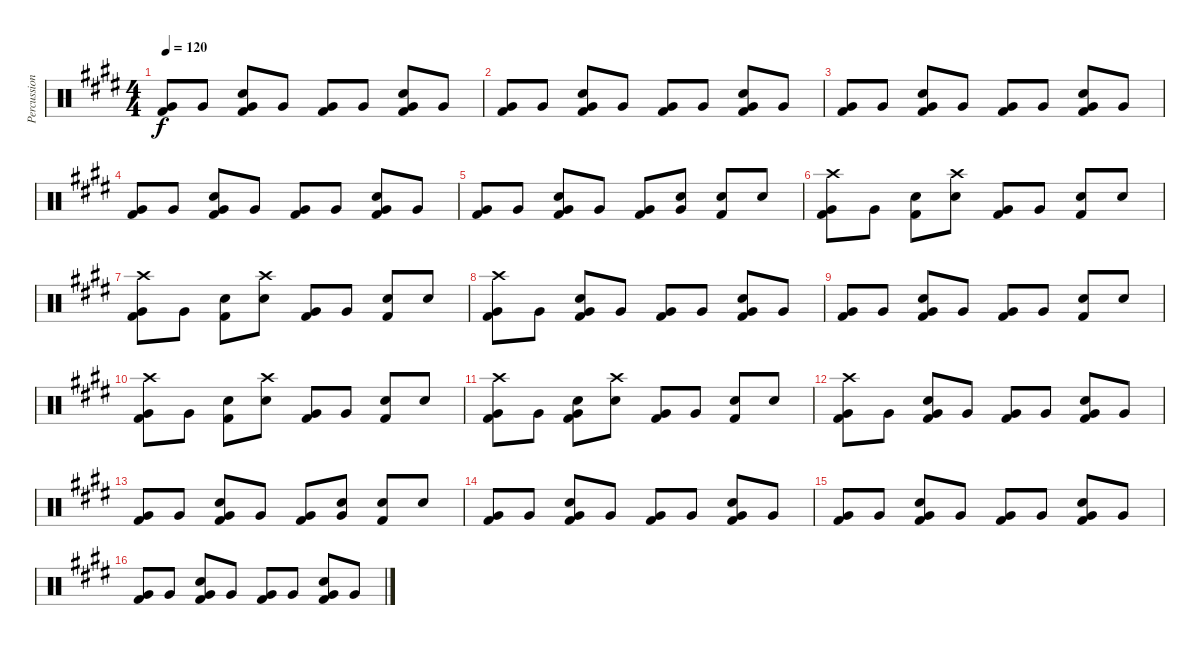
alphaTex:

\track ("Percussion" "Percussion") {instrument percussion}
\staff {score}
\articulation defaults
\ts (4 4)
\tempo 120
\clef neutral
\ks e
("Very Low Tom (hit)" "Kick (hit) 2").8{dy f} "Very Low Tom (hit)".8 ("Snare (hit) 2" "Very Low Tom (hit)" "Kick (hit) 2").8 "Very Low Tom (hit)".8 ("Very Low Tom (hit)" "Kick (hit) 2").8 "Very Low Tom (hit)".8 ("Snare (hit) 2" "Very Low Tom (hit)" "Kick (hit) 2").8 "Very Low Tom (hit)".8 |
("Very Low Tom (hit)" "Kick (hit) 2").8 "Very Low Tom (hit)".8 ("Snare (hit) 2" "Very Low Tom (hit)" "Kick (hit) 2").8 "Very Low Tom (hit)".8 ("Very Low Tom (hit)" "Kick (hit) 2").8 "Very Low Tom (hit)".8 ("Snare (hit) 2" "Very Low Tom (hit)" "Kick (hit) 2").8 "Very Low Tom (hit)".8 |
("Very Low Tom (hit)" "Kick (hit) 2").8 "Very Low Tom (hit)".8 ("Snare (hit) 2" "Very Low Tom (hit)" "Kick (hit) 2").8 "Very Low Tom (hit)".8 ("Very Low Tom (hit)" "Kick (hit) 2").8 "Very Low Tom (hit)".8 ("Snare (hit) 2" "Very Low Tom (hit)" "Kick (hit) 2").8 "Very Low Tom (hit)".8 |
("Very Low Tom (hit)" "Kick (hit) 2").8 "Very Low Tom (hit)".8 ("Snare (hit) 2" "Very Low Tom (hit)" "Kick (hit) 2").8 "Very Low Tom (hit)".8 ("Very Low Tom (hit)" "Kick (hit) 2").8 "Very Low Tom (hit)".8 ("Snare (hit) 2" "Very Low Tom (hit)" "Kick (hit) 2").8 "Very Low Tom (hit)".8 |
("Very Low Tom (hit)" "Kick (hit) 2").8 "Very Low Tom (hit)".8 ("Snare (hit) 2" "Very Low Tom (hit)" "Kick (hit) 2").8 "Very Low Tom (hit)".8 ("Very Low Tom (hit)" "Kick (hit) 2").8 ("Snare (hit) 2" "Very Low Tom (hit)").8 ("Snare (hit) 2" "Kick (hit) 2").8 "Snare (hit) 2".8 |
("Crash high (hit)" "Very Low Tom (hit)" "Kick (hit) 2").8 "Very Low Tom (hit)".8 ("Snare (hit) 2" "Kick (hit) 2").8 ("Crash high (hit)" "Snare (hit) 2").8 ("Very Low Tom (hit)" "Kick (hit) 2").8 "Very Low Tom (hit)".8 ("Snare (hit) 2" "Kick (hit) 2").8 "Snare (hit) 2".8 |
("Crash high (hit)" "Very Low Tom (hit)" "Kick (hit) 2").8 "Very Low Tom (hit)".8 ("Snare (hit) 2" "Kick (hit) 2").8 ("Crash high (hit)" "Snare (hit) 2").8 ("Very Low Tom (hit)" "Kick (hit) 2").8 "Very Low Tom (hit)".8 ("Snare (hit) 2" "Kick (hit) 2").8 "Snare (hit) 2".8 |
("Crash high (hit)" "Very Low Tom (hit)" "Kick (hit) 2").8 "Very Low Tom (hit)".8 ("Snare (hit) 2" "Very Low Tom (hit)" "Kick (hit) 2").8 "Very Low Tom (hit)".8 ("Very Low Tom (hit)" "Kick (hit) 2").8 "Very Low Tom (hit)".8 ("Snare (hit) 2" "Very Low Tom (hit)" "Kick (hit) 2").8 "Very Low Tom (hit)".8 |
("Very Low Tom (hit)" "Kick (hit) 2").8 "Very Low Tom (hit)".8 ("Snare (hit) 2" "Very Low Tom (hit)" "Kick (hit) 2").8 "Very Low Tom (hit)".8 ("Very Low Tom (hit)" "Kick (hit) 2").8 "Very Low Tom (hit)".8 ("Snare (hit) 2" "Kick (hit) 2").8 "Snare (hit) 2".8 |
("Crash high (hit)" "Very Low Tom (hit)" "Kick (hit) 2").8 "Very Low Tom (hit)".8 ("Snare (hit) 2" "Kick (hit) 2").8 ("Crash high (hit)" "Snare (hit) 2").8 ("Very Low Tom (hit)" "Kick (hit) 2").8 "Very Low Tom (hit)".8 ("Snare (hit) 2" "Kick (hit) 2").8 "Snare (hit) 2".8 |
("Crash high (hit)" "Very Low Tom (hit)" "Kick (hit) 2").8 "Very Low Tom (hit)".8 ("Snare (hit) 2" "Very Low Tom (hit)" "Kick (hit) 2").8 ("Crash high (hit)" "Snare (hit) 2").8 ("Very Low Tom (hit)" "Kick (hit) 2").8 "Very Low Tom (hit)".8 ("Snare (hit) 2" "Kick (hit) 2").8 "Snare (hit) 2".8 |
("Crash high (hit)" "Very Low Tom (hit)" "Kick (hit) 2").8 "Very Low Tom (hit)".8 ("Snare (hit) 2" "Very Low Tom (hit)" "Kick (hit) 2").8 "Very Low Tom (hit)".8 ("Very Low Tom (hit)" "Kick (hit) 2").8 "Very Low Tom (hit)".8 ("Snare (hit) 2" "Very Low Tom (hit)" "Kick (hit) 2").8 "Very Low Tom (hit)".8 |
("Very Low Tom (hit)" "Kick (hit) 2").8 "Very Low Tom (hit)".8 ("Snare (hit) 2" "Very Low Tom (hit)" "Kick (hit) 2").8 "Very Low Tom (hit)".8 ("Very Low Tom (hit)" "Kick (hit) 2").8 ("Snare (hit) 2" "Very Low Tom (hit)").8 ("Snare (hit) 2" "Kick (hit) 2").8 "Snare (hit) 2".8 |
("Very Low Tom (hit)" "Kick (hit) 2").8 "Very Low Tom (hit)".8 ("Snare (hit) 2" "Very Low Tom (hit)" "Kick (hit) 2").8 "Very Low Tom (hit)".8 ("Very Low Tom (hit)" "Kick (hit) 2").8 "Very Low Tom (hit)".8 ("Snare (hit) 2" "Very Low Tom (hit)" "Kick (hit) 2").8 "Very Low Tom (hit)".8 |
("Very Low Tom (hit)" "Kick (hit) 2").8 "Very Low Tom (hit)".8 ("Snare (hit) 2" "Very Low Tom (hit)" "Kick (hit) 2").8 "Very Low Tom (hit)".8 ("Very Low Tom (hit)" "Kick (hit) 2").8 "Very Low Tom (hit)".8 ("Snare (hit) 2" "Very Low Tom (hit)" "Kick (hit) 2").8 "Very Low Tom (hit)".8 |
("Very Low Tom (hit)" "Kick (hit) 2").8 "Very Low Tom (hit)".8 ("Snare (hit) 2" "Very Low Tom (hit)" "Kick (hit) 2").8 "Very Low Tom (hit)".8 ("Very Low Tom (hit)" "Kick (hit) 2").8 "Very Low Tom (hit)".8 ("Snare (hit) 2" "Very Low Tom (hit)" "Kick (hit) 2").8 "Very Low Tom (hit)".8
